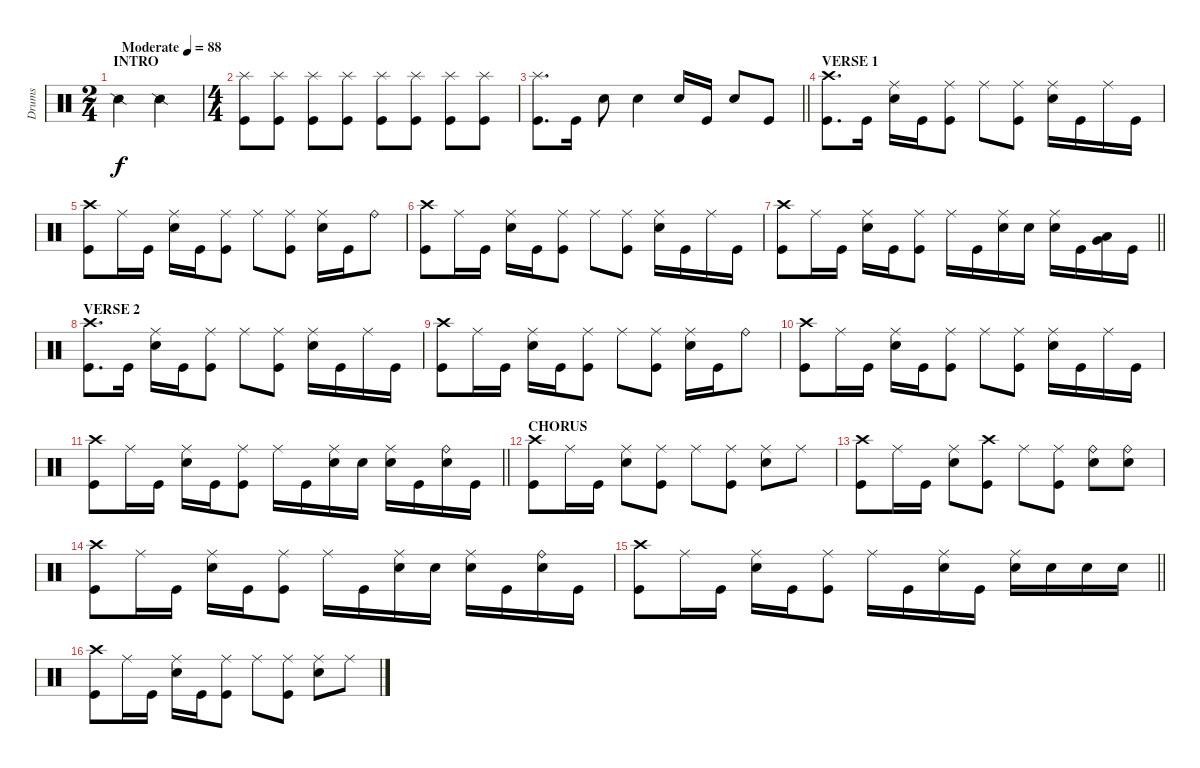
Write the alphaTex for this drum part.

\track ("Drums" "Drums") {instrument percussion}
\staff
\articulation defaults
\ts (2 4)
\section ("" "INTRO")
\tempo (88 "Moderate")
\clef neutral
\ks c "Snare (side stick) 2".4{dy f} "Snare (side stick) 2".4
|
\ts (4 4)
("Splash (hit)" "Kick (hit)").8 ("Splash (hit)" "Kick (hit)").8 ("Splash (hit)" "Kick (hit)").8 ("Splash (hit)" "Kick (hit)").8 ("Splash (hit)" "Kick (hit)").8 ("Splash (hit)" "Kick (hit)").8 ("Splash (hit)" "Kick (hit)").8 ("Splash (hit)" "Kick (hit)").8 |
\barLineRight lightlight
("Splash (hit)" "Kick (hit)").8{d} "Kick (hit)".16 "Electric Snare (hit)".8 "Electric Snare (hit)".4 "Electric Snare (hit)".16 "Kick (hit)".16 "Electric Snare (hit)".8 "Kick (hit)".8 |
\section ("" "VERSE 1")
("Crash high (hit)" "Kick (hit)").8{d} "Kick (hit)".16 ("Ride (middle)" "Electric Snare (hit)").16 "Kick (hit)".16 ("Ride (middle)" "Kick (hit)").8 "Ride (middle)".8 ("Ride (middle)" "Kick (hit)").8 ("Ride (middle)" "Electric Snare (hit)").16 "Kick (hit)".16 "Ride (middle)".16 "Kick (hit)".16 |
("Crash high (hit)" "Kick (hit)").8 "Ride (middle)".16 "Kick (hit)".16 ("Ride (middle)" "Electric Snare (hit)").16 "Kick (hit)".16 ("Ride (middle)" "Kick (hit)").8 "Ride (middle)".8 ("Ride (middle)" "Kick (hit)").8 ("Ride (middle)" "Electric Snare (hit)").16 "Kick (hit)".16 "Ride (bell)".8 |
("Crash high (hit)" "Kick (hit)").8 "Ride (middle)".16 "Kick (hit)".16 ("Ride (middle)" "Electric Snare (hit)").16 "Kick (hit)".16 ("Ride (middle)" "Kick (hit)").8 "Ride (middle)".8 ("Ride (middle)" "Kick (hit)").8 ("Ride (middle)" "Electric Snare (hit)").16 "Kick (hit)".16 "Ride (middle)".16 "Kick (hit)".16 |
\barLineRight lightlight
("Crash high (hit)" "Kick (hit)").8 "Ride (middle)".16 "Kick (hit)".16 ("Ride (middle)" "Electric Snare (hit)").16 "Kick (hit)".16 ("Ride (middle)" "Kick (hit)").8 "Ride (middle)".16 "Kick (hit)".16 ("Ride (middle)" "Electric Snare (hit)").16 "Electric Snare (hit)".16 ("Ride (middle)" "Electric Snare (hit)").16 "Kick (hit)".16 ("Very Low Tom (hit)" "Low Floor Tom (hit)").16 "Kick (hit)".16 |
\section ("" "VERSE 2")
("Crash high (hit)" "Kick (hit)").8{d} "Kick (hit)".16 ("Ride (middle)" "Electric Snare (hit)").16 "Kick (hit)".16 ("Ride (middle)" "Kick (hit)").8 "Ride (middle)".8 ("Ride (middle)" "Kick (hit)").8 ("Ride (middle)" "Electric Snare (hit)").16 "Kick (hit)".16 "Ride (middle)".16 "Kick (hit)".16 |
("Crash high (hit)" "Kick (hit)").8 "Ride (middle)".16 "Kick (hit)".16 ("Ride (middle)" "Electric Snare (hit)").16 "Kick (hit)".16 ("Ride (middle)" "Kick (hit)").8 "Ride (middle)".8 ("Ride (middle)" "Kick (hit)").8 ("Ride (middle)" "Electric Snare (hit)").16 "Kick (hit)".16 "Ride (bell)".8 |
("Crash high (hit)" "Kick (hit)").8 "Ride (middle)".16 "Kick (hit)".16 ("Ride (middle)" "Electric Snare (hit)").16 "Kick (hit)".16 ("Ride (middle)" "Kick (hit)").8 "Ride (middle)".8 ("Ride (middle)" "Kick (hit)").8 ("Ride (middle)" "Electric Snare (hit)").16 "Kick (hit)".16 "Ride (middle)".16 "Kick (hit)".16 |
\barLineRight lightlight
("Crash high (hit)" "Kick (hit)").8 "Ride (middle)".16 "Kick (hit)".16 ("Ride (middle)" "Electric Snare (hit)").16 "Kick (hit)".16 ("Ride (middle)" "Kick (hit)").8 "Ride (middle)".16 "Kick (hit)".16 ("Ride (middle)" "Electric Snare (hit)").16 "Electric Snare (hit)".16 ("Ride (middle)" "Electric Snare (hit)").16 "Kick (hit)".16 ("Ride (bell)" "Electric Snare (hit)").16 "Kick (hit)".16 |
\section ("" "CHORUS")
("Crash high (hit)" "Kick (hit)").8 "Ride (middle)".16 "Kick (hit)".16 ("Ride (middle)" "Electric Snare (hit)").8 ("Ride (middle)" "Kick (hit)").8 "Ride (middle)".8 ("Ride (middle)" "Kick (hit)").8 ("Ride (middle)" "Electric Snare (hit)").8 "Ride (middle)".8 |
("Crash high (hit)" "Kick (hit)").8 "Ride (middle)".16 "Kick (hit)".16 ("Ride (middle)" "Electric Snare (hit)").8 ("Crash high (hit)" "Kick (hit)").8 "Ride (middle)".8 ("Ride (middle)" "Kick (hit)").8 ("Ride (bell)" "Electric Snare (hit)").8 ("Ride (bell)" "Electric Snare (hit)").8 |
("Crash high (hit)" "Kick (hit)").8 "Ride (middle)".16 "Kick (hit)".16 ("Ride (middle)" "Electric Snare (hit)").16 "Kick (hit)".16 ("Ride (middle)" "Kick (hit)").8 "Ride (middle)".16 "Kick (hit)".16 ("Ride (middle)" "Electric Snare (hit)").16 "Electric Snare (hit)".16 ("Ride (middle)" "Electric Snare (hit)").16 "Kick (hit)".16 ("Ride (bell)" "Electric Snare (hit)").16 "Kick (hit)".16 |
\barLineRight lightlight
("Crash high (hit)" "Kick (hit)").8 "Ride (middle)".16 "Kick (hit)".16 ("Ride (middle)" "Electric Snare (hit)").16 "Kick (hit)".16 ("Ride (middle)" "Kick (hit)").8 "Ride (middle)".16 "Kick (hit)".16 ("Ride (middle)" "Electric Snare (hit)").16 "Kick (hit)".16 ("Ride (middle)" "Electric Snare (hit)").16 "Electric Snare (hit)".16 "Electric Snare (hit)".16 "Electric Snare (hit)".16 |
("Crash high (hit)" "Kick (hit)").8 "Ride (middle)".16 "Kick (hit)".16 ("Ride (middle)" "Electric Snare (hit)").16 "Kick (hit)".16 ("Ride (middle)" "Kick (hit)").8 "Ride (middle)".8 ("Ride (middle)" "Kick (hit)").8 ("Ride (middle)" "Electric Snare (hit)").8 "Ride (middle)".8
